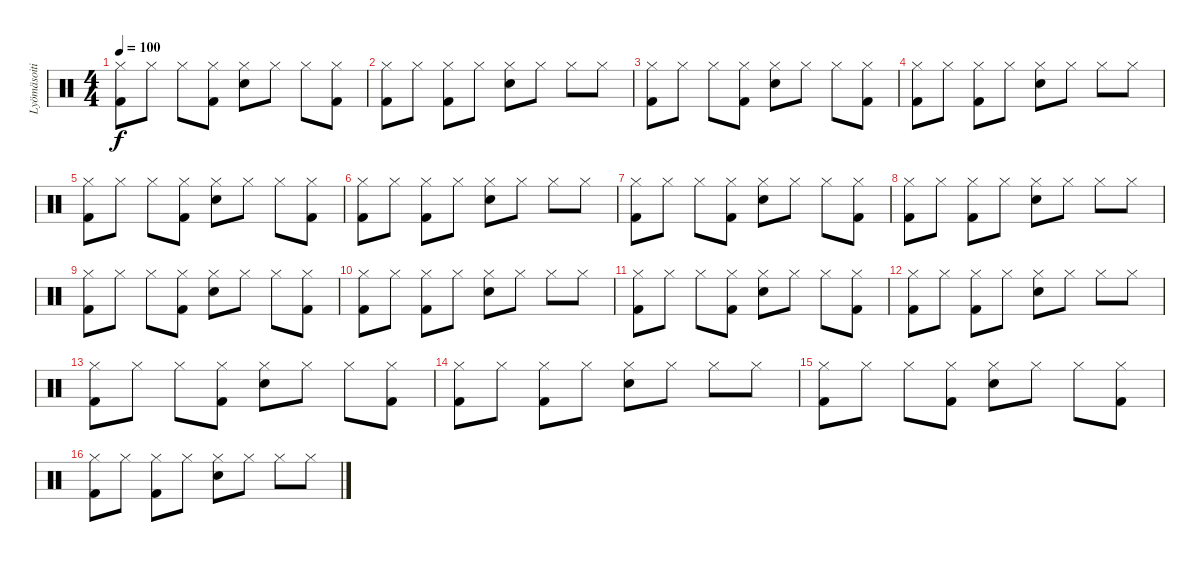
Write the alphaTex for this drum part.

\track ("Lyömäsoitin" "Lyömäsoiti") {instrument percussion}
\staff {score}
\articulation defaults
\ts (4 4)
\tempo 100
\clef neutral
\ks c
("Hi-Hat (closed)" "Kick (hit) 2").8{dy f} "Hi-Hat (closed)".8 "Hi-Hat (closed)".8 ("Hi-Hat (closed)" "Kick (hit) 2").8 ("Hi-Hat (closed)" "Snare (hit) 2").8 "Hi-Hat (closed)".8 "Hi-Hat (closed)".8 ("Hi-Hat (closed)" "Kick (hit) 2").8 |
("Hi-Hat (closed)" "Kick (hit) 2").8 "Hi-Hat (closed)".8 ("Hi-Hat (closed)" "Kick (hit) 2").8 "Hi-Hat (closed)".8 ("Hi-Hat (closed)" "Snare (hit) 2").8 "Hi-Hat (closed)".8 "Hi-Hat (closed)".8 "Hi-Hat (closed)".8 |
("Hi-Hat (closed)" "Kick (hit) 2").8 "Hi-Hat (closed)".8 "Hi-Hat (closed)".8 ("Hi-Hat (closed)" "Kick (hit) 2").8 ("Hi-Hat (closed)" "Snare (hit) 2").8 "Hi-Hat (closed)".8 "Hi-Hat (closed)".8 ("Hi-Hat (closed)" "Kick (hit) 2").8 |
("Hi-Hat (closed)" "Kick (hit) 2").8 "Hi-Hat (closed)".8 ("Hi-Hat (closed)" "Kick (hit) 2").8 "Hi-Hat (closed)".8 ("Hi-Hat (closed)" "Snare (hit) 2").8 "Hi-Hat (closed)".8 "Hi-Hat (closed)".8 "Hi-Hat (closed)".8 |
("Hi-Hat (closed)" "Kick (hit) 2").8 "Hi-Hat (closed)".8 "Hi-Hat (closed)".8 ("Hi-Hat (closed)" "Kick (hit) 2").8 ("Hi-Hat (closed)" "Snare (hit) 2").8 "Hi-Hat (closed)".8 "Hi-Hat (closed)".8 ("Hi-Hat (closed)" "Kick (hit) 2").8 |
("Hi-Hat (closed)" "Kick (hit) 2").8 "Hi-Hat (closed)".8 ("Hi-Hat (closed)" "Kick (hit) 2").8 "Hi-Hat (closed)".8 ("Hi-Hat (closed)" "Snare (hit) 2").8 "Hi-Hat (closed)".8 "Hi-Hat (closed)".8 "Hi-Hat (closed)".8 |
("Hi-Hat (closed)" "Kick (hit) 2").8 "Hi-Hat (closed)".8 "Hi-Hat (closed)".8 ("Hi-Hat (closed)" "Kick (hit) 2").8 ("Hi-Hat (closed)" "Snare (hit) 2").8 "Hi-Hat (closed)".8 "Hi-Hat (closed)".8 ("Hi-Hat (closed)" "Kick (hit) 2").8 |
("Hi-Hat (closed)" "Kick (hit) 2").8 "Hi-Hat (closed)".8 ("Hi-Hat (closed)" "Kick (hit) 2").8 "Hi-Hat (closed)".8 ("Hi-Hat (closed)" "Snare (hit) 2").8 "Hi-Hat (closed)".8 "Hi-Hat (closed)".8 "Hi-Hat (closed)".8 |
("Hi-Hat (closed)" "Kick (hit) 2").8 "Hi-Hat (closed)".8 "Hi-Hat (closed)".8 ("Hi-Hat (closed)" "Kick (hit) 2").8 ("Hi-Hat (closed)" "Snare (hit) 2").8 "Hi-Hat (closed)".8 "Hi-Hat (closed)".8 ("Hi-Hat (closed)" "Kick (hit) 2").8 |
("Hi-Hat (closed)" "Kick (hit) 2").8 "Hi-Hat (closed)".8 ("Hi-Hat (closed)" "Kick (hit) 2").8 "Hi-Hat (closed)".8 ("Hi-Hat (closed)" "Snare (hit) 2").8 "Hi-Hat (closed)".8 "Hi-Hat (closed)".8 "Hi-Hat (closed)".8 |
("Hi-Hat (closed)" "Kick (hit) 2").8 "Hi-Hat (closed)".8 "Hi-Hat (closed)".8 ("Hi-Hat (closed)" "Kick (hit) 2").8 ("Hi-Hat (closed)" "Snare (hit) 2").8 "Hi-Hat (closed)".8 "Hi-Hat (closed)".8 ("Hi-Hat (closed)" "Kick (hit) 2").8 |
("Hi-Hat (closed)" "Kick (hit) 2").8 "Hi-Hat (closed)".8 ("Hi-Hat (closed)" "Kick (hit) 2").8 "Hi-Hat (closed)".8 ("Hi-Hat (closed)" "Snare (hit) 2").8 "Hi-Hat (closed)".8 "Hi-Hat (closed)".8 "Hi-Hat (closed)".8 |
("Hi-Hat (closed)" "Kick (hit) 2").8 "Hi-Hat (closed)".8 "Hi-Hat (closed)".8 ("Hi-Hat (closed)" "Kick (hit) 2").8 ("Hi-Hat (closed)" "Snare (hit) 2").8 "Hi-Hat (closed)".8 "Hi-Hat (closed)".8 ("Hi-Hat (closed)" "Kick (hit) 2").8 |
("Hi-Hat (closed)" "Kick (hit) 2").8 "Hi-Hat (closed)".8 ("Hi-Hat (closed)" "Kick (hit) 2").8 "Hi-Hat (closed)".8 ("Hi-Hat (closed)" "Snare (hit) 2").8 "Hi-Hat (closed)".8 "Hi-Hat (closed)".8 "Hi-Hat (closed)".8 |
("Hi-Hat (closed)" "Kick (hit) 2").8 "Hi-Hat (closed)".8 "Hi-Hat (closed)".8 ("Hi-Hat (closed)" "Kick (hit) 2").8 ("Hi-Hat (closed)" "Snare (hit) 2").8 "Hi-Hat (closed)".8 "Hi-Hat (closed)".8 ("Hi-Hat (closed)" "Kick (hit) 2").8 |
("Hi-Hat (closed)" "Kick (hit) 2").8 "Hi-Hat (closed)".8 ("Hi-Hat (closed)" "Kick (hit) 2").8 "Hi-Hat (closed)".8 ("Hi-Hat (closed)" "Snare (hit) 2").8 "Hi-Hat (closed)".8 "Hi-Hat (closed)".8 "Hi-Hat (closed)".8
